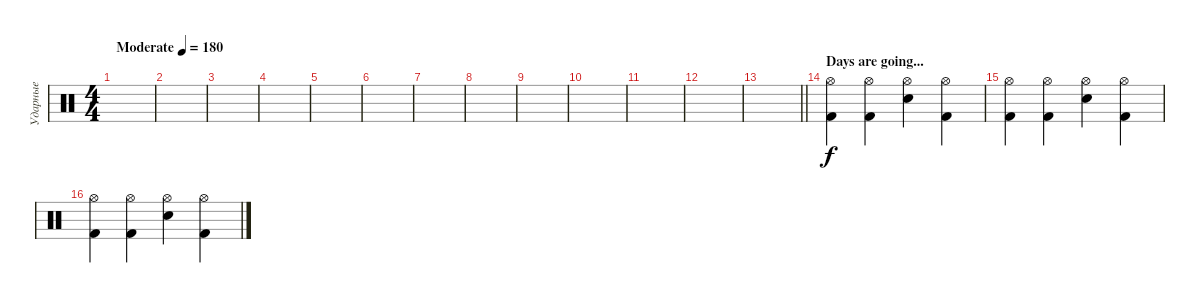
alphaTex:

\track ("Ударные" "Ударные") {instrument percussion}
\staff {score}
\articulation defaults
\ts (4 4)
\tempo (180 "Moderate")
\clef neutral
\ks c
|
|
|
|
|
|
|
|
|
|
|
|
\barLineRight lightlight
|
\section ("" "Days are going...")
("Hi-Hat (open)" "Kick (hit) 2").4 ("Hi-Hat (open)" "Kick (hit) 2").4 ("Electric Snare (hit)" "Hi-Hat (open)").4 ("Hi-Hat (open)" "Kick (hit) 2").4 |
("Hi-Hat (open)" "Kick (hit) 2").4 ("Hi-Hat (open)" "Kick (hit) 2").4 ("Electric Snare (hit)" "Hi-Hat (open)").4 ("Hi-Hat (open)" "Kick (hit) 2").4 |
("Hi-Hat (open)" "Kick (hit) 2").4 ("Hi-Hat (open)" "Kick (hit) 2").4 ("Electric Snare (hit)" "Hi-Hat (open)").4 ("Hi-Hat (open)" "Kick (hit) 2").4
